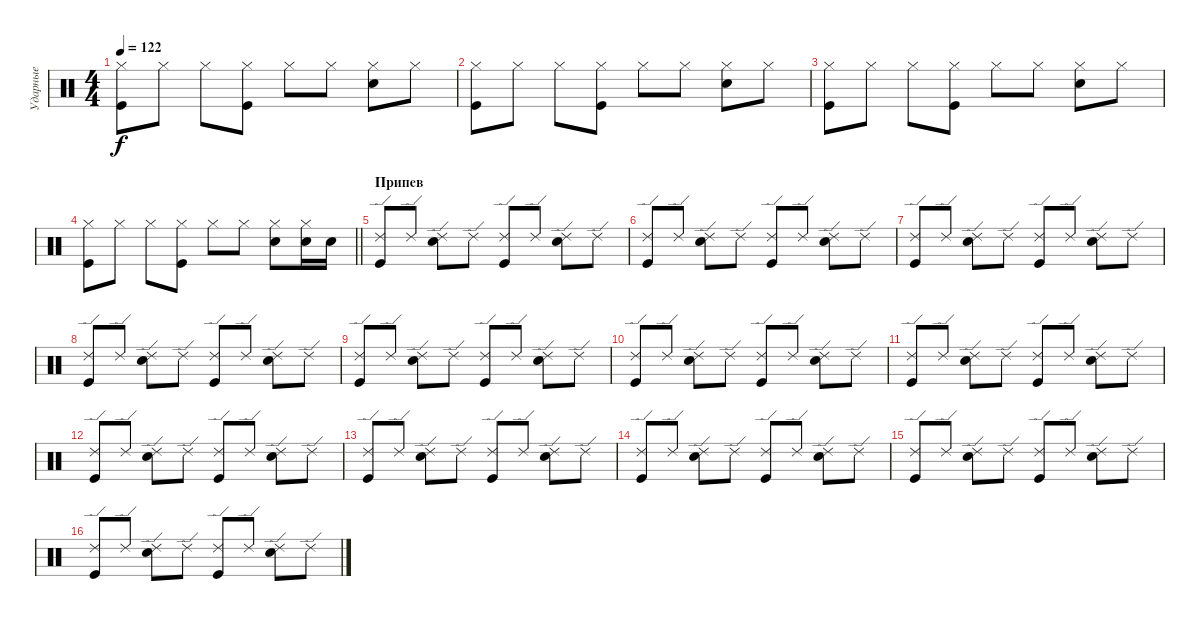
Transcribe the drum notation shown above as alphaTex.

\track ("Ударные" "Ударные") {instrument percussion}
\staff {score}
\articulation defaults
\ts (4 4)
\tempo 122
\clef neutral
\ks c
("Hi-Hat (closed)" "Kick (hit)").8{dy f} "Hi-Hat (closed)".8 "Hi-Hat (closed)".8 ("Kick (hit)" "Hi-Hat (closed)").8 "Hi-Hat (closed)".8 "Hi-Hat (closed)".8 ("Electric Snare (hit)" "Hi-Hat (closed)").8 "Hi-Hat (closed)".8 |
("Hi-Hat (closed)" "Kick (hit)").8 "Hi-Hat (closed)".8 "Hi-Hat (closed)".8 ("Kick (hit)" "Hi-Hat (closed)").8 "Hi-Hat (closed)".8 "Hi-Hat (closed)".8 ("Electric Snare (hit)" "Hi-Hat (closed)").8 "Hi-Hat (closed)".8 |
("Hi-Hat (closed)" "Kick (hit)").8 "Hi-Hat (closed)".8 "Hi-Hat (closed)".8 ("Kick (hit)" "Hi-Hat (closed)").8 "Hi-Hat (closed)".8 "Hi-Hat (closed)".8 ("Electric Snare (hit)" "Hi-Hat (closed)").8 "Hi-Hat (closed)".8 |
\barLineRight lightlight
("Hi-Hat (closed)" "Kick (hit)").8 "Hi-Hat (closed)".8 "Hi-Hat (closed)".8 ("Kick (hit)" "Hi-Hat (closed)").8 "Hi-Hat (closed)".8 "Hi-Hat (closed)".8 ("Electric Snare (hit)" "Hi-Hat (closed)").8 ("Electric Snare (hit)" "Hi-Hat (closed)").16 "Electric Snare (hit)".16 |
\section ("" "Припев")
("Kick (hit)" "Ride (edge) 2").8 "Ride (edge) 2".8 ("Ride (edge) 2" "Electric Snare (hit)").8 "Ride (edge) 2".8 ("Kick (hit)" "Ride (edge) 2").8 "Ride (edge) 2".8 ("Electric Snare (hit)" "Ride (edge) 2").8 "Ride (edge) 2".8 |
("Kick (hit)" "Ride (edge) 2").8 "Ride (edge) 2".8 ("Ride (edge) 2" "Electric Snare (hit)").8 "Ride (edge) 2".8 ("Kick (hit)" "Ride (edge) 2").8 "Ride (edge) 2".8 ("Electric Snare (hit)" "Ride (edge) 2").8 "Ride (edge) 2".8 |
("Kick (hit)" "Ride (edge) 2").8 "Ride (edge) 2".8 ("Ride (edge) 2" "Electric Snare (hit)").8 "Ride (edge) 2".8 ("Kick (hit)" "Ride (edge) 2").8 "Ride (edge) 2".8 ("Electric Snare (hit)" "Ride (edge) 2").8 "Ride (edge) 2".8 |
("Kick (hit)" "Ride (edge) 2").8 "Ride (edge) 2".8 ("Ride (edge) 2" "Electric Snare (hit)").8 "Ride (edge) 2".8 ("Kick (hit)" "Ride (edge) 2").8 "Ride (edge) 2".8 ("Electric Snare (hit)" "Ride (edge) 2").8 "Ride (edge) 2".8 |
("Kick (hit)" "Ride (edge) 2").8 "Ride (edge) 2".8 ("Ride (edge) 2" "Electric Snare (hit)").8 "Ride (edge) 2".8 ("Kick (hit)" "Ride (edge) 2").8 "Ride (edge) 2".8 ("Electric Snare (hit)" "Ride (edge) 2").8 "Ride (edge) 2".8 |
("Kick (hit)" "Ride (edge) 2").8 "Ride (edge) 2".8 ("Ride (edge) 2" "Electric Snare (hit)").8 "Ride (edge) 2".8 ("Kick (hit)" "Ride (edge) 2").8 "Ride (edge) 2".8 ("Electric Snare (hit)" "Ride (edge) 2").8 "Ride (edge) 2".8 |
("Kick (hit)" "Ride (edge) 2").8 "Ride (edge) 2".8 ("Ride (edge) 2" "Electric Snare (hit)").8 "Ride (edge) 2".8 ("Kick (hit)" "Ride (edge) 2").8 "Ride (edge) 2".8 ("Electric Snare (hit)" "Ride (edge) 2").8 "Ride (edge) 2".8 |
("Kick (hit)" "Ride (edge) 2").8 "Ride (edge) 2".8 ("Ride (edge) 2" "Electric Snare (hit)").8 "Ride (edge) 2".8 ("Kick (hit)" "Ride (edge) 2").8 "Ride (edge) 2".8 ("Electric Snare (hit)" "Ride (edge) 2").8 "Ride (edge) 2".8 |
("Kick (hit)" "Ride (edge) 2").8 "Ride (edge) 2".8 ("Ride (edge) 2" "Electric Snare (hit)").8 "Ride (edge) 2".8 ("Kick (hit)" "Ride (edge) 2").8 "Ride (edge) 2".8 ("Electric Snare (hit)" "Ride (edge) 2").8 "Ride (edge) 2".8 |
("Kick (hit)" "Ride (edge) 2").8 "Ride (edge) 2".8 ("Ride (edge) 2" "Electric Snare (hit)").8 "Ride (edge) 2".8 ("Kick (hit)" "Ride (edge) 2").8 "Ride (edge) 2".8 ("Electric Snare (hit)" "Ride (edge) 2").8 "Ride (edge) 2".8 |
("Kick (hit)" "Ride (edge) 2").8 "Ride (edge) 2".8 ("Ride (edge) 2" "Electric Snare (hit)").8 "Ride (edge) 2".8 ("Kick (hit)" "Ride (edge) 2").8 "Ride (edge) 2".8 ("Electric Snare (hit)" "Ride (edge) 2").8 "Ride (edge) 2".8 |
("Kick (hit)" "Ride (edge) 2").8 "Ride (edge) 2".8 ("Ride (edge) 2" "Electric Snare (hit)").8 "Ride (edge) 2".8 ("Kick (hit)" "Ride (edge) 2").8 "Ride (edge) 2".8 ("Electric Snare (hit)" "Ride (edge) 2").8 "Ride (edge) 2".8
